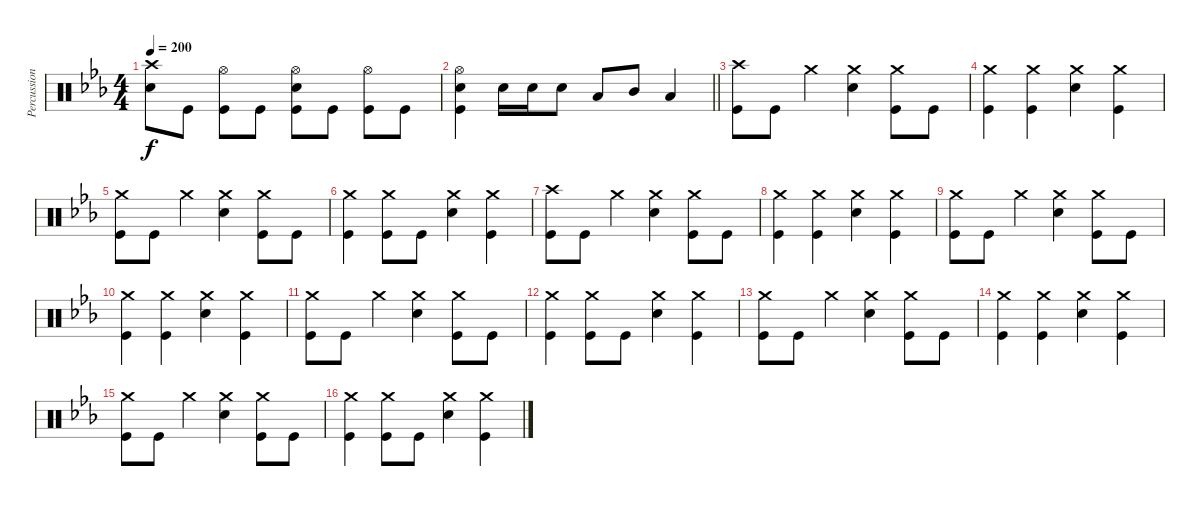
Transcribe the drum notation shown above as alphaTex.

\track ("Percussion" "Percussion") {instrument percussion}
\staff {score}
\articulation defaults
\ts (4 4)
\tempo 200
\clef neutral
\ks eb
("Crash high (hit)" "Snare (hit) 2").8{dy f} "Kick (hit)".8 ("Hi-Hat (open)" "Kick (hit)").8 "Kick (hit)".8 ("Hi-Hat (open)" "Snare (hit) 2" "Kick (hit)").8 "Kick (hit)".8 ("Hi-Hat (open)" "Kick (hit)").8 "Kick (hit)".8 |
\barLineRight lightlight
("Hi-Hat (open)" "Snare (hit) 2" "Kick (hit)").4 "Snare (hit) 2".16 "Snare (hit) 2".16 "Snare (hit) 2".8 "Low Tom (hit)".8 "Mid Tom (hit)".8 "Low Floor Tom (hit)".4 |
("Crash high (hit)" "Kick (hit)").8 "Kick (hit)".8 "Crash medium (hit)".4 ("Crash medium (hit)" "Snare (hit) 2").4 ("Crash medium (hit)" "Kick (hit)").8 "Kick (hit)".8 |
("Crash medium (hit)" "Kick (hit)").4 ("Crash medium (hit)" "Kick (hit)").4 ("Crash medium (hit)" "Snare (hit) 2").4 ("Crash medium (hit)" "Kick (hit)").4 |
("Crash medium (hit)" "Kick (hit)").8 "Kick (hit)".8 "Crash medium (hit)".4 ("Crash medium (hit)" "Snare (hit) 2").4 ("Crash medium (hit)" "Kick (hit)").8 "Kick (hit)".8 |
("Crash medium (hit)" "Kick (hit)").4 ("Crash medium (hit)" "Kick (hit)").8 "Kick (hit)".8 ("Crash medium (hit)" "Snare (hit) 2").4 ("Crash medium (hit)" "Kick (hit)").4 |
("Crash high (hit)" "Kick (hit)").8 "Kick (hit)".8 "Crash medium (hit)".4 ("Crash medium (hit)" "Snare (hit) 2").4 ("Crash medium (hit)" "Kick (hit)").8 "Kick (hit)".8 |
("Crash medium (hit)" "Kick (hit)").4 ("Crash medium (hit)" "Kick (hit)").4 ("Crash medium (hit)" "Snare (hit) 2").4 ("Crash medium (hit)" "Kick (hit)").4 |
("Crash medium (hit)" "Kick (hit)").8 "Kick (hit)".8 "Crash medium (hit)".4 ("Crash medium (hit)" "Snare (hit) 2").4 ("Crash medium (hit)" "Kick (hit)").8 "Kick (hit)".8 |
("Crash medium (hit)" "Kick (hit)").4 ("Crash medium (hit)" "Kick (hit)").4 ("Crash medium (hit)" "Snare (hit) 2").4 ("Crash medium (hit)" "Kick (hit)").4 |
("Crash medium (hit)" "Kick (hit)").8 "Kick (hit)".8 "Crash medium (hit)".4 ("Crash medium (hit)" "Snare (hit) 2").4 ("Crash medium (hit)" "Kick (hit)").8 "Kick (hit)".8 |
("Crash medium (hit)" "Kick (hit)").4 ("Crash medium (hit)" "Kick (hit)").8 "Kick (hit)".8 ("Crash medium (hit)" "Snare (hit) 2").4 ("Crash medium (hit)" "Kick (hit)").4 |
("Crash medium (hit)" "Kick (hit)").8 "Kick (hit)".8 "Crash medium (hit)".4 ("Crash medium (hit)" "Snare (hit) 2").4 ("Crash medium (hit)" "Kick (hit)").8 "Kick (hit)".8 |
("Crash medium (hit)" "Kick (hit)").4 ("Crash medium (hit)" "Kick (hit)").4 ("Crash medium (hit)" "Snare (hit) 2").4 ("Crash medium (hit)" "Kick (hit)").4 |
("Crash medium (hit)" "Kick (hit)").8 "Kick (hit)".8 "Crash medium (hit)".4 ("Crash medium (hit)" "Snare (hit) 2").4 ("Crash medium (hit)" "Kick (hit)").8 "Kick (hit)".8 |
("Crash medium (hit)" "Kick (hit)").4 ("Crash medium (hit)" "Kick (hit)").8 "Kick (hit)".8 ("Crash medium (hit)" "Snare (hit) 2").4 ("Crash medium (hit)" "Kick (hit)").4
